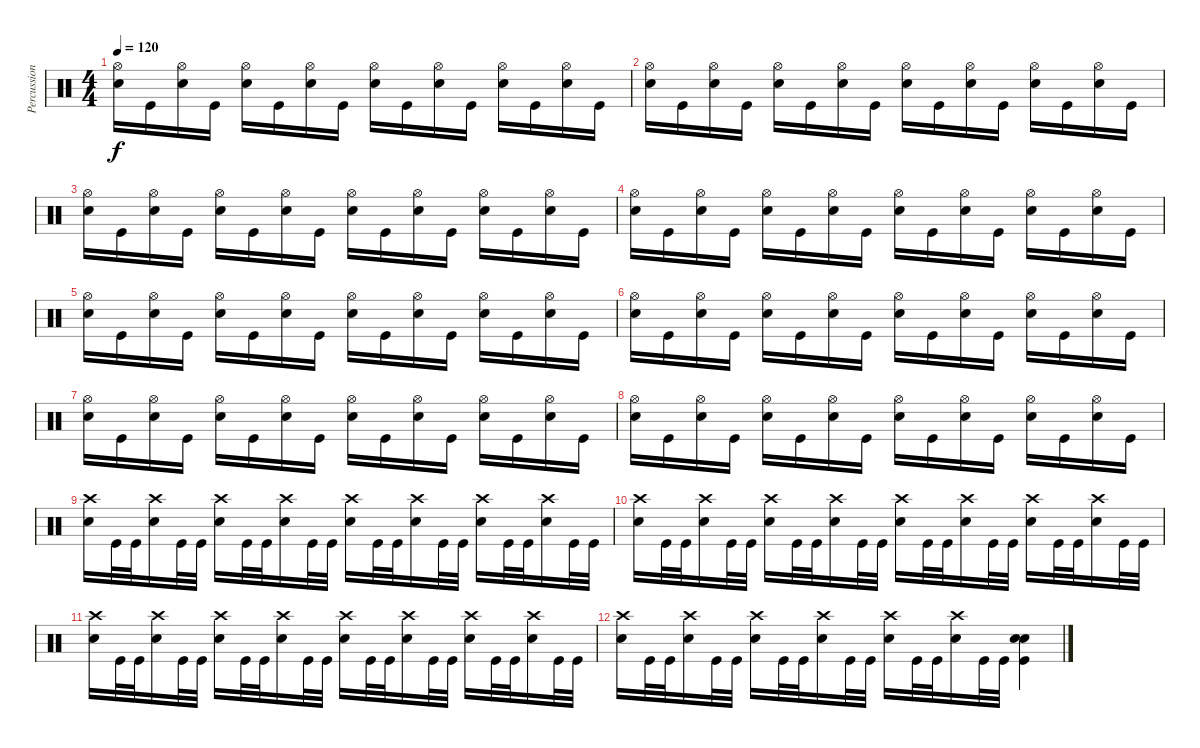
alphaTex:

\track ("Percussion" "Percussion") {instrument percussion}
\staff {score}
\articulation defaults
\ts (4 4)
\tempo 120
\clef neutral
\ks c
("Hi-Hat (open)" "Electric Snare (hit)").16{dy f} "Kick (hit)".16 ("Hi-Hat (open)" "Electric Snare (hit)").16 "Kick (hit)".16 ("Hi-Hat (open)" "Electric Snare (hit)").16 "Kick (hit)".16 ("Hi-Hat (open)" "Electric Snare (hit)").16 "Kick (hit)".16 ("Hi-Hat (open)" "Electric Snare (hit)").16 "Kick (hit)".16 ("Hi-Hat (open)" "Electric Snare (hit)").16 "Kick (hit)".16 ("Hi-Hat (open)" "Electric Snare (hit)").16 "Kick (hit)".16 ("Hi-Hat (open)" "Electric Snare (hit)").16 "Kick (hit)".16 |
("Hi-Hat (open)" "Electric Snare (hit)").16 "Kick (hit)".16 ("Hi-Hat (open)" "Electric Snare (hit)").16 "Kick (hit)".16 ("Hi-Hat (open)" "Electric Snare (hit)").16 "Kick (hit)".16 ("Hi-Hat (open)" "Electric Snare (hit)").16 "Kick (hit)".16 ("Hi-Hat (open)" "Electric Snare (hit)").16 "Kick (hit)".16 ("Hi-Hat (open)" "Electric Snare (hit)").16 "Kick (hit)".16 ("Hi-Hat (open)" "Electric Snare (hit)").16 "Kick (hit)".16 ("Hi-Hat (open)" "Electric Snare (hit)").16 "Kick (hit)".16 |
("Hi-Hat (open)" "Electric Snare (hit)").16 "Kick (hit)".16 ("Hi-Hat (open)" "Electric Snare (hit)").16 "Kick (hit)".16 ("Hi-Hat (open)" "Electric Snare (hit)").16 "Kick (hit)".16 ("Hi-Hat (open)" "Electric Snare (hit)").16 "Kick (hit)".16 ("Hi-Hat (open)" "Electric Snare (hit)").16 "Kick (hit)".16 ("Hi-Hat (open)" "Electric Snare (hit)").16 "Kick (hit)".16 ("Hi-Hat (open)" "Electric Snare (hit)").16 "Kick (hit)".16 ("Hi-Hat (open)" "Electric Snare (hit)").16 "Kick (hit)".16 |
("Hi-Hat (open)" "Electric Snare (hit)").16 "Kick (hit)".16 ("Hi-Hat (open)" "Electric Snare (hit)").16 "Kick (hit)".16 ("Hi-Hat (open)" "Electric Snare (hit)").16 "Kick (hit)".16 ("Hi-Hat (open)" "Electric Snare (hit)").16 "Kick (hit)".16 ("Hi-Hat (open)" "Electric Snare (hit)").16 "Kick (hit)".16 ("Hi-Hat (open)" "Electric Snare (hit)").16 "Kick (hit)".16 ("Hi-Hat (open)" "Electric Snare (hit)").16 "Kick (hit)".16 ("Hi-Hat (open)" "Electric Snare (hit)").16 "Kick (hit)".16 |
("Hi-Hat (open)" "Electric Snare (hit)").16 "Kick (hit)".16 ("Hi-Hat (open)" "Electric Snare (hit)").16 "Kick (hit)".16 ("Hi-Hat (open)" "Electric Snare (hit)").16 "Kick (hit)".16 ("Hi-Hat (open)" "Electric Snare (hit)").16 "Kick (hit)".16 ("Hi-Hat (open)" "Electric Snare (hit)").16 "Kick (hit)".16 ("Hi-Hat (open)" "Electric Snare (hit)").16 "Kick (hit)".16 ("Hi-Hat (open)" "Electric Snare (hit)").16 "Kick (hit)".16 ("Hi-Hat (open)" "Electric Snare (hit)").16 "Kick (hit)".16 |
("Hi-Hat (open)" "Electric Snare (hit)").16 "Kick (hit)".16 ("Hi-Hat (open)" "Electric Snare (hit)").16 "Kick (hit)".16 ("Hi-Hat (open)" "Electric Snare (hit)").16 "Kick (hit)".16 ("Hi-Hat (open)" "Electric Snare (hit)").16 "Kick (hit)".16 ("Hi-Hat (open)" "Electric Snare (hit)").16 "Kick (hit)".16 ("Hi-Hat (open)" "Electric Snare (hit)").16 "Kick (hit)".16 ("Hi-Hat (open)" "Electric Snare (hit)").16 "Kick (hit)".16 ("Hi-Hat (open)" "Electric Snare (hit)").16 "Kick (hit)".16 |
("Hi-Hat (open)" "Electric Snare (hit)").16 "Kick (hit)".16 ("Hi-Hat (open)" "Electric Snare (hit)").16 "Kick (hit)".16 ("Hi-Hat (open)" "Electric Snare (hit)").16 "Kick (hit)".16 ("Hi-Hat (open)" "Electric Snare (hit)").16 "Kick (hit)".16 ("Hi-Hat (open)" "Electric Snare (hit)").16 "Kick (hit)".16 ("Hi-Hat (open)" "Electric Snare (hit)").16 "Kick (hit)".16 ("Hi-Hat (open)" "Electric Snare (hit)").16 "Kick (hit)".16 ("Hi-Hat (open)" "Electric Snare (hit)").16 "Kick (hit)".16 |
("Hi-Hat (open)" "Electric Snare (hit)").16 "Kick (hit)".16 ("Hi-Hat (open)" "Electric Snare (hit)").16 "Kick (hit)".16 ("Hi-Hat (open)" "Electric Snare (hit)").16 "Kick (hit)".16 ("Hi-Hat (open)" "Electric Snare (hit)").16 "Kick (hit)".16 ("Hi-Hat (open)" "Electric Snare (hit)").16 "Kick (hit)".16 ("Hi-Hat (open)" "Electric Snare (hit)").16 "Kick (hit)".16 ("Hi-Hat (open)" "Electric Snare (hit)").16 "Kick (hit)".16 ("Hi-Hat (open)" "Electric Snare (hit)").16 "Kick (hit)".16 |
("Crash high (hit)" "Electric Snare (hit)").16 "Kick (hit)".32 "Kick (hit)".32 ("Crash high (hit)" "Electric Snare (hit)").16 "Kick (hit)".32 "Kick (hit)".32 ("Crash high (hit)" "Electric Snare (hit)").16 "Kick (hit)".32 "Kick (hit)".32 ("Crash high (hit)" "Electric Snare (hit)").16 "Kick (hit)".32 "Kick (hit)".32 ("Crash high (hit)" "Electric Snare (hit)").16 "Kick (hit)".32 "Kick (hit)".32 ("Crash high (hit)" "Electric Snare (hit)").16 "Kick (hit)".32 "Kick (hit)".32 ("Crash high (hit)" "Electric Snare (hit)").16 "Kick (hit)".32 "Kick (hit)".32 ("Crash high (hit)" "Electric Snare (hit)").16 "Kick (hit)".32 "Kick (hit)".32 |
("Crash high (hit)" "Electric Snare (hit)").16 "Kick (hit)".32 "Kick (hit)".32 ("Crash high (hit)" "Electric Snare (hit)").16 "Kick (hit)".32 "Kick (hit)".32 ("Crash high (hit)" "Electric Snare (hit)").16 "Kick (hit)".32 "Kick (hit)".32 ("Crash high (hit)" "Electric Snare (hit)").16 "Kick (hit)".32 "Kick (hit)".32 ("Crash high (hit)" "Electric Snare (hit)").16 "Kick (hit)".32 "Kick (hit)".32 ("Crash high (hit)" "Electric Snare (hit)").16 "Kick (hit)".32 "Kick (hit)".32 ("Crash high (hit)" "Electric Snare (hit)").16 "Kick (hit)".32 "Kick (hit)".32 ("Crash high (hit)" "Electric Snare (hit)").16 "Kick (hit)".32 "Kick (hit)".32 |
("Crash high (hit)" "Electric Snare (hit)").16 "Kick (hit)".32 "Kick (hit)".32 ("Crash high (hit)" "Electric Snare (hit)").16 "Kick (hit)".32 "Kick (hit)".32 ("Crash high (hit)" "Electric Snare (hit)").16 "Kick (hit)".32 "Kick (hit)".32 ("Crash high (hit)" "Electric Snare (hit)").16 "Kick (hit)".32 "Kick (hit)".32 ("Crash high (hit)" "Electric Snare (hit)").16 "Kick (hit)".32 "Kick (hit)".32 ("Crash high (hit)" "Electric Snare (hit)").16 "Kick (hit)".32 "Kick (hit)".32 ("Crash high (hit)" "Electric Snare (hit)").16 "Kick (hit)".32 "Kick (hit)".32 ("Crash high (hit)" "Electric Snare (hit)").16 "Kick (hit)".32 "Kick (hit)".32 |
("Crash high (hit)" "Electric Snare (hit)").16 "Kick (hit)".32 "Kick (hit)".32 ("Crash high (hit)" "Electric Snare (hit)").16 "Kick (hit)".32 "Kick (hit)".32 ("Crash high (hit)" "Electric Snare (hit)").16 "Kick (hit)".32 "Kick (hit)".32 ("Crash high (hit)" "Electric Snare (hit)").16 "Kick (hit)".32 "Kick (hit)".32 ("Crash high (hit)" "Electric Snare (hit)").16 "Kick (hit)".32 "Kick (hit)".32 ("Crash high (hit)" "Electric Snare (hit)").16 "Kick (hit)".32 "Kick (hit)".32 ("Snare (hit) 2" "Electric Snare (hit)" "Kick (hit)").4
